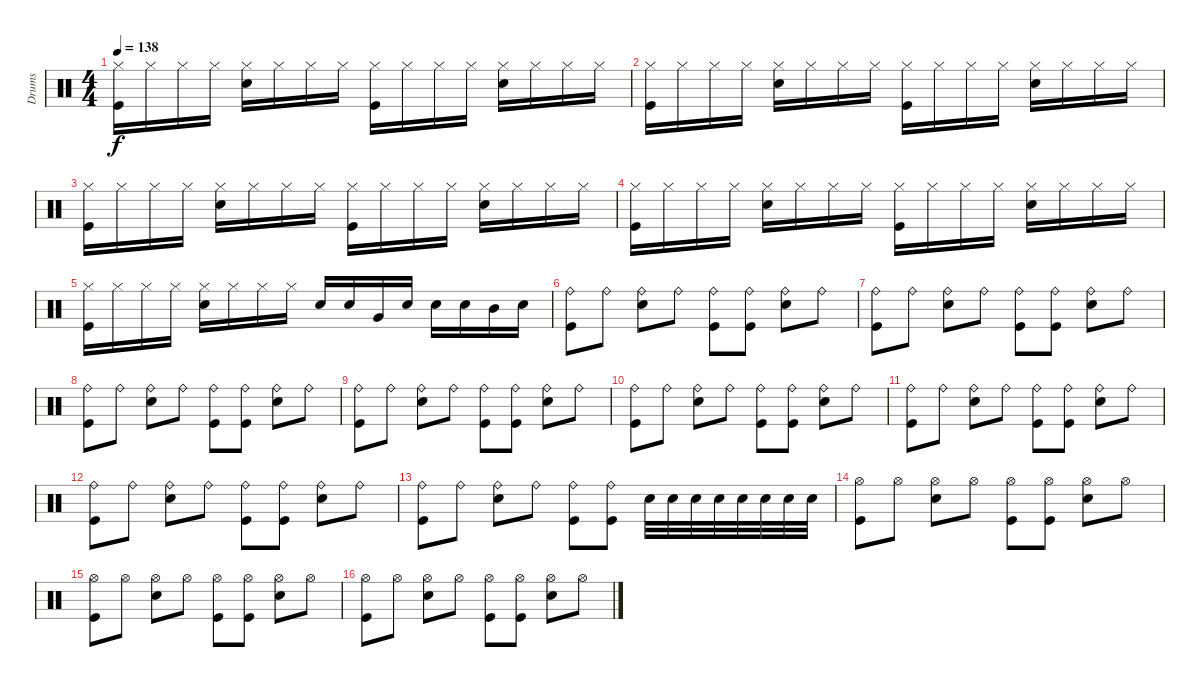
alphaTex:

\track ("Drums" "Drums") {instrument percussion}
\staff {score}
\articulation defaults
\ts (4 4)
\tempo 138
\clef neutral
\ks c
("Hi-Hat (closed)" "Kick (hit)").16{dy f} "Hi-Hat (closed)".16 "Hi-Hat (closed)".16 "Hi-Hat (closed)".16 ("Hi-Hat (closed)" "Snare (hit) 2").16 "Hi-Hat (closed)".16 "Hi-Hat (closed)".16 "Hi-Hat (closed)".16 ("Hi-Hat (closed)" "Kick (hit)").16 "Hi-Hat (closed)".16 "Hi-Hat (closed)".16 "Hi-Hat (closed)".16 ("Hi-Hat (closed)" "Snare (hit) 2").16 "Hi-Hat (closed)".16 "Hi-Hat (closed)".16 "Hi-Hat (closed)".16 |
("Hi-Hat (closed)" "Kick (hit)").16 "Hi-Hat (closed)".16 "Hi-Hat (closed)".16 "Hi-Hat (closed)".16 ("Hi-Hat (closed)" "Snare (hit) 2").16 "Hi-Hat (closed)".16 "Hi-Hat (closed)".16 "Hi-Hat (closed)".16 ("Hi-Hat (closed)" "Kick (hit)").16 "Hi-Hat (closed)".16 "Hi-Hat (closed)".16 "Hi-Hat (closed)".16 ("Hi-Hat (closed)" "Snare (hit) 2").16 "Hi-Hat (closed)".16 "Hi-Hat (closed)".16 "Hi-Hat (closed)".16 |
("Hi-Hat (closed)" "Kick (hit)").16 "Hi-Hat (closed)".16 "Hi-Hat (closed)".16 "Hi-Hat (closed)".16 ("Hi-Hat (closed)" "Snare (hit) 2").16 "Hi-Hat (closed)".16 "Hi-Hat (closed)".16 "Hi-Hat (closed)".16 ("Hi-Hat (closed)" "Kick (hit)").16 "Hi-Hat (closed)".16 "Hi-Hat (closed)".16 "Hi-Hat (closed)".16 ("Hi-Hat (closed)" "Snare (hit) 2").16 "Hi-Hat (closed)".16 "Hi-Hat (closed)".16 "Hi-Hat (closed)".16 |
("Hi-Hat (closed)" "Kick (hit)").16 "Hi-Hat (closed)".16 "Hi-Hat (closed)".16 "Hi-Hat (closed)".16 ("Hi-Hat (closed)" "Snare (hit) 2").16 "Hi-Hat (closed)".16 "Hi-Hat (closed)".16 "Hi-Hat (closed)".16 ("Hi-Hat (closed)" "Kick (hit)").16 "Hi-Hat (closed)".16 "Hi-Hat (closed)".16 "Hi-Hat (closed)".16 ("Hi-Hat (closed)" "Snare (hit) 2").16 "Hi-Hat (closed)".16 "Hi-Hat (closed)".16 "Hi-Hat (closed)".16 |
("Hi-Hat (closed)" "Kick (hit)").16 "Hi-Hat (closed)".16 "Hi-Hat (closed)".16 "Hi-Hat (closed)".16 ("Hi-Hat (closed)" "Snare (hit) 2").16 "Hi-Hat (closed)".16 "Hi-Hat (closed)".16 "Hi-Hat (closed)".16 "Snare (hit) 2".16 "Snare (hit) 2".16 "Very Low Tom (hit)".16 "Snare (hit) 2".16 "Snare (hit) 2".16 "Snare (hit) 2".16 "Mid Tom (hit)".16 "Snare (hit) 2".16 |
("Ride (bell)" "Kick (hit)").8 "Ride (bell)".8 ("Ride (bell)" "Snare (hit) 2").8 "Ride (bell)".8 ("Ride (bell)" "Kick (hit)").8 ("Ride (bell)" "Kick (hit)").8 ("Ride (bell)" "Snare (hit) 2").8 "Ride (bell)".8 |
("Ride (bell)" "Kick (hit)").8 "Ride (bell)".8 ("Ride (bell)" "Snare (hit) 2").8 "Ride (bell)".8 ("Ride (bell)" "Kick (hit)").8 ("Ride (bell)" "Kick (hit)").8 ("Ride (bell)" "Snare (hit) 2").8 "Ride (bell)".8 |
("Ride (bell)" "Kick (hit)").8 "Ride (bell)".8 ("Ride (bell)" "Snare (hit) 2").8 "Ride (bell)".8 ("Ride (bell)" "Kick (hit)").8 ("Ride (bell)" "Kick (hit)").8 ("Ride (bell)" "Snare (hit) 2").8 "Ride (bell)".8 |
("Ride (bell)" "Kick (hit)").8 "Ride (bell)".8 ("Ride (bell)" "Snare (hit) 2").8 "Ride (bell)".8 ("Ride (bell)" "Kick (hit)").8 ("Ride (bell)" "Kick (hit)").8 ("Ride (bell)" "Snare (hit) 2").8 "Ride (bell)".8 |
("Ride (bell)" "Kick (hit)").8 "Ride (bell)".8 ("Ride (bell)" "Snare (hit) 2").8 "Ride (bell)".8 ("Ride (bell)" "Kick (hit)").8 ("Ride (bell)" "Kick (hit)").8 ("Ride (bell)" "Snare (hit) 2").8 "Ride (bell)".8 |
("Ride (bell)" "Kick (hit)").8 "Ride (bell)".8 ("Ride (bell)" "Snare (hit) 2").8 "Ride (bell)".8 ("Ride (bell)" "Kick (hit)").8 ("Ride (bell)" "Kick (hit)").8 ("Ride (bell)" "Snare (hit) 2").8 "Ride (bell)".8 |
("Ride (bell)" "Kick (hit)").8 "Ride (bell)".8 ("Ride (bell)" "Snare (hit) 2").8 "Ride (bell)".8 ("Ride (bell)" "Kick (hit)").8 ("Ride (bell)" "Kick (hit)").8 ("Ride (bell)" "Snare (hit) 2").8 "Ride (bell)".8 |
("Ride (bell)" "Kick (hit)").8 "Ride (bell)".8 ("Ride (bell)" "Snare (hit) 2").8 "Ride (bell)".8 ("Ride (bell)" "Kick (hit)").8 ("Ride (bell)" "Kick (hit)").8 "Snare (hit) 2".32 "Snare (hit) 2".32 "Snare (hit) 2".32 "Snare (hit) 2".32 "Snare (hit) 2".32 "Snare (hit) 2".32 "Snare (hit) 2".32 "Snare (hit) 2".32 |
("Hi-Hat (open)" "Kick (hit)").8 "Hi-Hat (open)".8 ("Hi-Hat (open)" "Snare (hit) 2").8 "Hi-Hat (open)".8 ("Hi-Hat (open)" "Kick (hit)").8 ("Hi-Hat (open)" "Kick (hit)").8 ("Hi-Hat (open)" "Snare (hit) 2").8 "Hi-Hat (open)".8 |
("Hi-Hat (open)" "Kick (hit)").8 "Hi-Hat (open)".8 ("Hi-Hat (open)" "Snare (hit) 2").8 "Hi-Hat (open)".8 ("Hi-Hat (open)" "Kick (hit)").8 ("Hi-Hat (open)" "Kick (hit)").8 ("Hi-Hat (open)" "Snare (hit) 2").8 "Hi-Hat (open)".8 |
("Hi-Hat (open)" "Kick (hit)").8 "Hi-Hat (open)".8 ("Hi-Hat (open)" "Snare (hit) 2").8 "Hi-Hat (open)".8 ("Hi-Hat (open)" "Kick (hit)").8 ("Hi-Hat (open)" "Kick (hit)").8 ("Hi-Hat (open)" "Snare (hit) 2").8 "Hi-Hat (open)".8
